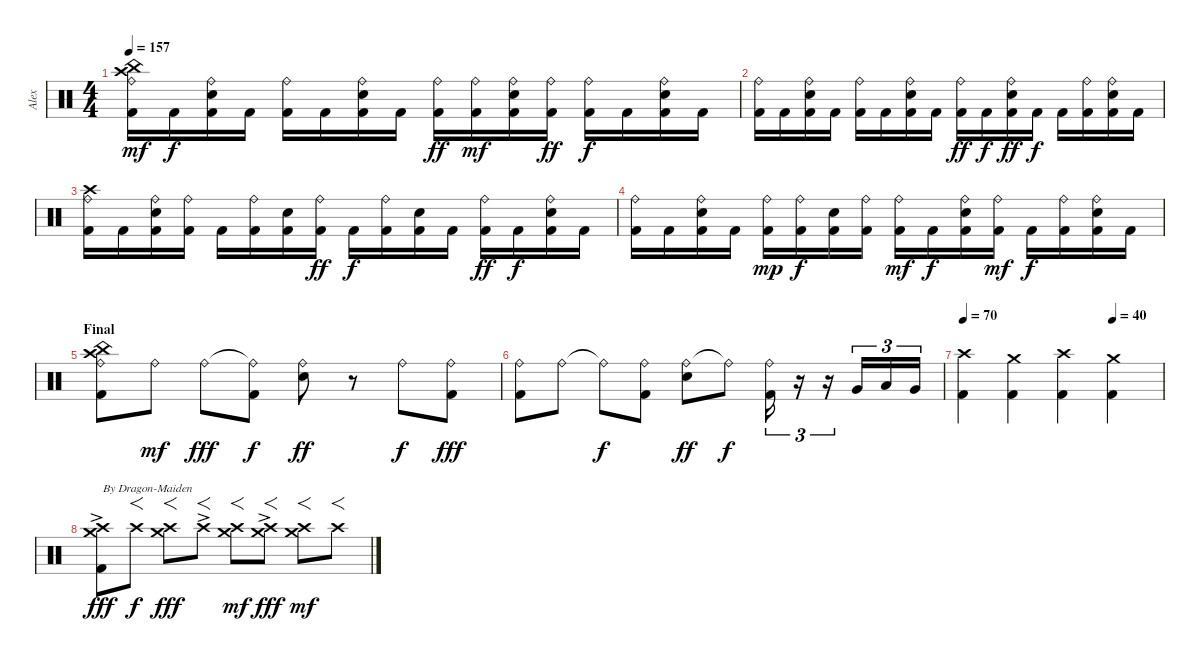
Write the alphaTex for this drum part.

\track ("Alex" "Alex") {instrument percussion}
\staff {score}
\articulation defaults
\ts (4 4)
\tempo 157
\clef neutral
\ks c
("Crash high (hit)" "China (hit)" "Ride (bell)" "Kick (hit) 2").16{dy mf} "Kick (hit) 2".16{dy f} ("Ride (bell)" "Electric Snare (hit)" "Kick (hit) 2").16 "Kick (hit) 2".16 ("Ride (bell)" "Kick (hit) 2").16 "Kick (hit) 2".16 ("Ride (bell)" "Electric Snare (hit)" "Kick (hit) 2").16 "Kick (hit) 2".16 ("Ride (bell)" "Kick (hit) 2").16{dy ff} ("Ride (bell)" "Kick (hit) 2").16{dy mf} ("Ride (bell)" "Electric Snare (hit)" "Kick (hit) 2").16 ("Ride (bell)" "Kick (hit) 2").16{dy ff} ("Ride (bell)" "Kick (hit) 2").16{dy f} "Kick (hit) 2".16 ("Ride (bell)" "Electric Snare (hit)" "Kick (hit) 2").16 "Kick (hit) 2".16 |
("Ride (bell)" "Kick (hit) 2").16 "Kick (hit) 2".16 ("Ride (bell)" "Electric Snare (hit)" "Kick (hit) 2").16 "Kick (hit) 2".16 ("Ride (bell)" "Kick (hit) 2").16 "Kick (hit) 2".16 ("Ride (bell)" "Electric Snare (hit)" "Kick (hit) 2").16 "Kick (hit) 2".16 ("Ride (bell)" "Kick (hit) 2").16{dy ff} "Kick (hit) 2".16{dy f} ("Ride (bell)" "Electric Snare (hit)" "Kick (hit) 2").16{dy ff} "Kick (hit) 2".16{dy f} "Kick (hit) 2".16 ("Ride (bell)" "Kick (hit) 2").16 ("Ride (bell)" "Electric Snare (hit)" "Kick (hit) 2").16 "Kick (hit) 2".16 |
("Crash high (hit)" "Ride (bell)" "Kick (hit) 2").16 "Kick (hit) 2".16 ("Ride (bell)" "Electric Snare (hit)" "Kick (hit) 2").16 ("Ride (bell)" "Kick (hit) 2").16 "Kick (hit) 2".16 ("Ride (bell)" "Kick (hit) 2").16 ("Electric Snare (hit)" "Kick (hit) 2").16 ("Ride (bell)" "Kick (hit) 2").16{dy ff} "Kick (hit) 2".16{dy f} ("Ride (bell)" "Kick (hit) 2").16 ("Electric Snare (hit)" "Kick (hit) 2").16 "Kick (hit) 2".16 ("Ride (bell)" "Kick (hit) 2").16{dy ff} "Kick (hit) 2".16{dy f} ("Ride (bell)" "Electric Snare (hit)" "Kick (hit) 2").16 "Kick (hit) 2".16 |
("Ride (bell)" "Kick (hit) 2").16 "Kick (hit) 2".16 ("Ride (bell)" "Electric Snare (hit)" "Kick (hit) 2").16 "Kick (hit) 2".16 ("Ride (bell)" "Kick (hit) 2").16{dy mp} ("Ride (bell)" "Kick (hit) 2").16{dy f} ("Electric Snare (hit)" "Kick (hit) 2").16 ("Ride (bell)" "Kick (hit) 2").16 ("Ride (bell)" "Kick (hit) 2").16{dy mf} "Kick (hit) 2".16{dy f} ("Ride (bell)" "Electric Snare (hit)" "Kick (hit) 2").16 ("Ride (bell)" "Kick (hit) 2").16{dy mf} "Kick (hit) 2".16{dy f} ("Ride (bell)" "Kick (hit) 2").16 ("Ride (bell)" "Electric Snare (hit)" "Kick (hit) 2").16 "Kick (hit) 2".16 |
\section ("" "Final")
("China (hit)" "Crash high (hit)" "Ride (bell)" "Kick (hit) 2").8 "Ride (bell)".8{dy mf} "Ride (bell)".8{dy fff} ("Ride (bell)"{t} "Kick (hit) 2").8{dy f} ("Ride (bell)" "Electric Snare (hit)").8{dy ff} r.8 "Ride (bell)".8{dy f} ("Ride (bell)" "Kick (hit) 2").8{dy fff} |
("Ride (bell)" "Kick (hit) 2").8 "Ride (bell)".8 "Ride (bell)"{t}.8{dy f} ("Ride (bell)" "Kick (hit) 2").8 ("Ride (bell)" "Electric Snare (hit)").8{dy ff} "Ride (bell)"{t}.8{dy f} ("Ride (bell)" "Kick (hit) 2").16{tu (3 2)} r.16{tu (3 2)} r.16{tu (3 2)} "Very Low Tom (hit)".16{tu (3 2)} "Low Tom (hit)".16{tu (3 2)} "Very Low Tom (hit)".16{tu (3 2)} |
\tempo 70
\tempo (40 0.75)
("Crash high (hit)" "Kick (hit) 2").4 ("Crash medium (hit)" "Kick (hit) 2").4 ("Crash high (hit)" "Kick (hit) 2").4 ("Crash medium (hit)" "Kick (hit) 2").4 |
("Crash medium (hit)" "Crash high (hit)"{ac} "Kick (hit) 2").8{txt "By Dragon-Maiden" dy fff} "Crash high (hit)".8{f dy f} ("Crash medium (hit)" "Crash high (hit)").8{f dy fff} "Crash high (hit)"{ac}.8{f} ("Crash medium (hit)" "Crash high (hit)").8{f dy mf} ("Crash medium (hit)" "Crash high (hit)"{ac}).8{f dy fff} ("Crash medium (hit)" "Crash high (hit)").8{f dy mf} "Crash high (hit)".8{f}
